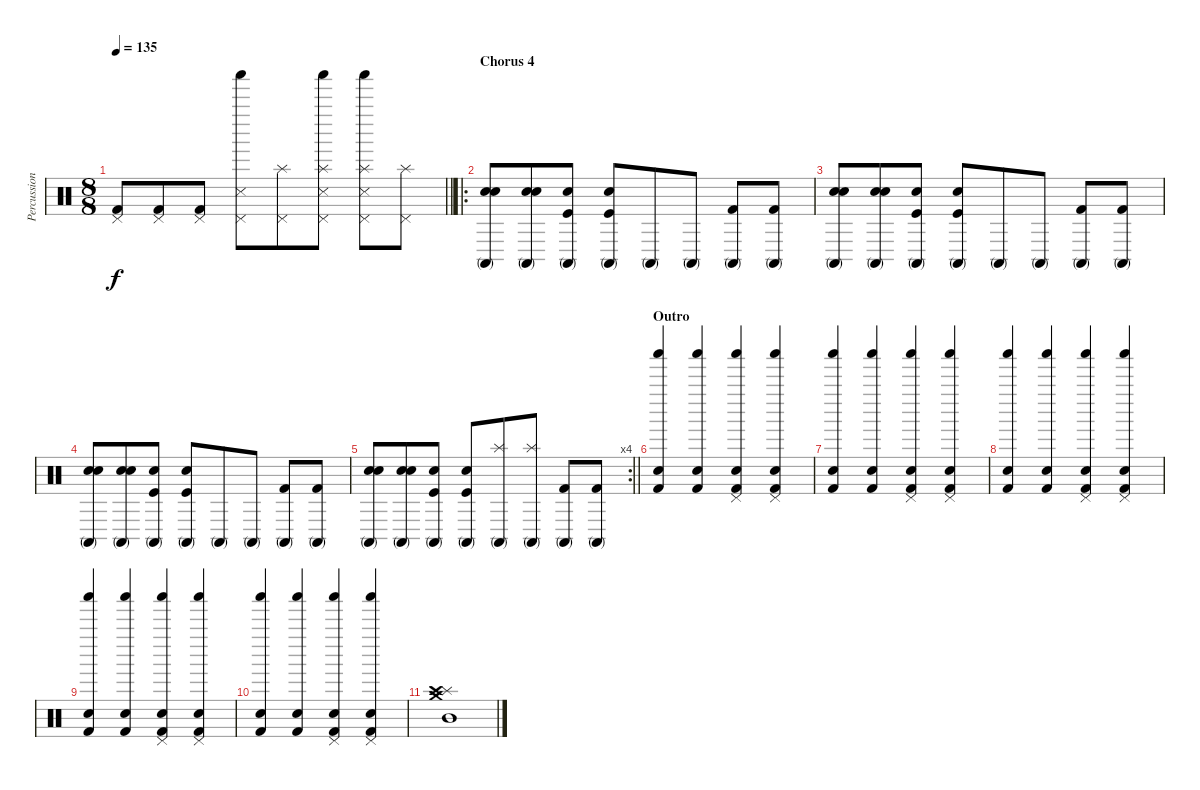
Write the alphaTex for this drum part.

\track ("Percussion" "Percussion") {instrument percussion}
\staff {score}
\articulation defaults
\ts (8 8)
\tempo 135
\clef neutral
\barLineRight lightlight
\ks c
("Kick (hit) 2" "Pedal Hi-Hat (hit)").8{dy f} ("Kick (hit) 2" "Pedal Hi-Hat (hit)").8 ("Kick (hit) 2" "Pedal Hi-Hat (hit)").8 ("Metronome (hit)" "Shaker (hit)" "Pedal Hi-Hat (hit)").8 ("Splash (hit)" "Pedal Hi-Hat (hit)").8 ("Metronome (hit)" "Shaker (hit)" "Splash (hit)" "Pedal Hi-Hat (hit)").8 ("Metronome (hit)" "Shaker (hit)" "Splash (hit)" "Pedal Hi-Hat (hit)").8 ("Splash (hit)" "Pedal Hi-Hat (hit)").8 |
\ro
\section ("" "Chorus 4")
("Electric Snare (hit)" "Electric Snare (hit)" "Conga high (mute)").8 ("Electric Snare (hit)" "Electric Snare (hit)" "Conga high (mute)").8 ("Kick (hit)" "Snare (hit) 2" "Conga high (mute)").8 ("Kick (hit)" "Snare (hit) 2" "Conga high (mute)").8 "Conga high (mute)".8 "Conga high (mute)".8 ("Kick (hit) 2" "Conga high (mute)").8 ("Kick (hit) 2" "Conga high (mute)").8 |
("Electric Snare (hit)" "Electric Snare (hit)" "Conga high (mute)").8 ("Electric Snare (hit)" "Electric Snare (hit)" "Conga high (mute)").8 ("Kick (hit)" "Snare (hit) 2" "Conga high (mute)").8 ("Kick (hit)" "Snare (hit) 2" "Conga high (mute)").8 "Conga high (mute)".8 "Conga high (mute)".8 ("Kick (hit) 2" "Conga high (mute)").8 ("Kick (hit) 2" "Conga high (mute)").8 |
("Electric Snare (hit)" "Electric Snare (hit)" "Conga high (mute)").8 ("Electric Snare (hit)" "Electric Snare (hit)" "Conga high (mute)").8 ("Kick (hit)" "Snare (hit) 2" "Conga high (mute)").8 ("Kick (hit)" "Snare (hit) 2" "Conga high (mute)").8 "Conga high (mute)".8 "Conga high (mute)".8 ("Kick (hit) 2" "Conga high (mute)").8 ("Kick (hit) 2" "Conga high (mute)").8 |
\rc 4
\barLineRight lightlight
("Electric Snare (hit)" "Electric Snare (hit)" "Conga high (mute)").8 ("Electric Snare (hit)" "Electric Snare (hit)" "Conga high (mute)").8 ("Kick (hit)" "Snare (hit) 2" "Conga high (mute)").8 ("Kick (hit)" "Snare (hit) 2" "Conga high (mute)").8 ("Splash (hit)" "Conga high (mute)").8 ("Splash (hit)" "Conga high (mute)").8 ("Kick (hit) 2" "Conga high (mute)").8 ("Kick (hit) 2" "Conga high (mute)").8 |
\section ("" "Outro")
("Shaker (hit)" "Hand Clap (hit)" "Kick (hit) 2").4 ("Shaker (hit)" "Hand Clap (hit)" "Kick (hit) 2").4 ("Shaker (hit)" "Hand Clap (hit)" "Pedal Hi-Hat (hit)" "Kick (hit) 2").4 ("Shaker (hit)" "Hand Clap (hit)" "Pedal Hi-Hat (hit)" "Kick (hit) 2").4 |
("Shaker (hit)" "Hand Clap (hit)" "Kick (hit) 2").4 ("Shaker (hit)" "Hand Clap (hit)" "Kick (hit) 2").4 ("Shaker (hit)" "Hand Clap (hit)" "Pedal Hi-Hat (hit)" "Kick (hit) 2").4 ("Shaker (hit)" "Hand Clap (hit)" "Pedal Hi-Hat (hit)" "Kick (hit) 2").4 |
("Shaker (hit)" "Hand Clap (hit)" "Kick (hit) 2").4 ("Shaker (hit)" "Hand Clap (hit)" "Kick (hit) 2").4 ("Shaker (hit)" "Hand Clap (hit)" "Pedal Hi-Hat (hit)" "Kick (hit) 2").4 ("Shaker (hit)" "Hand Clap (hit)" "Pedal Hi-Hat (hit)" "Kick (hit) 2").4 |
("Shaker (hit)" "Hand Clap (hit)" "Kick (hit) 2").4 ("Shaker (hit)" "Hand Clap (hit)" "Kick (hit) 2").4 ("Shaker (hit)" "Hand Clap (hit)" "Pedal Hi-Hat (hit)" "Kick (hit) 2").4 ("Shaker (hit)" "Hand Clap (hit)" "Pedal Hi-Hat (hit)" "Kick (hit) 2").4 |
("Shaker (hit)" "Hand Clap (hit)" "Kick (hit) 2").4 ("Shaker (hit)" "Hand Clap (hit)" "Kick (hit) 2").4 ("Shaker (hit)" "Hand Clap (hit)" "Pedal Hi-Hat (hit)" "Kick (hit) 2").4 ("Shaker (hit)" "Hand Clap (hit)" "Pedal Hi-Hat (hit)" "Kick (hit) 2").4 |
("Splash (hit)" "Crash medium (hit)" "Crash high (hit)" "Mid Tom (hit)").1
